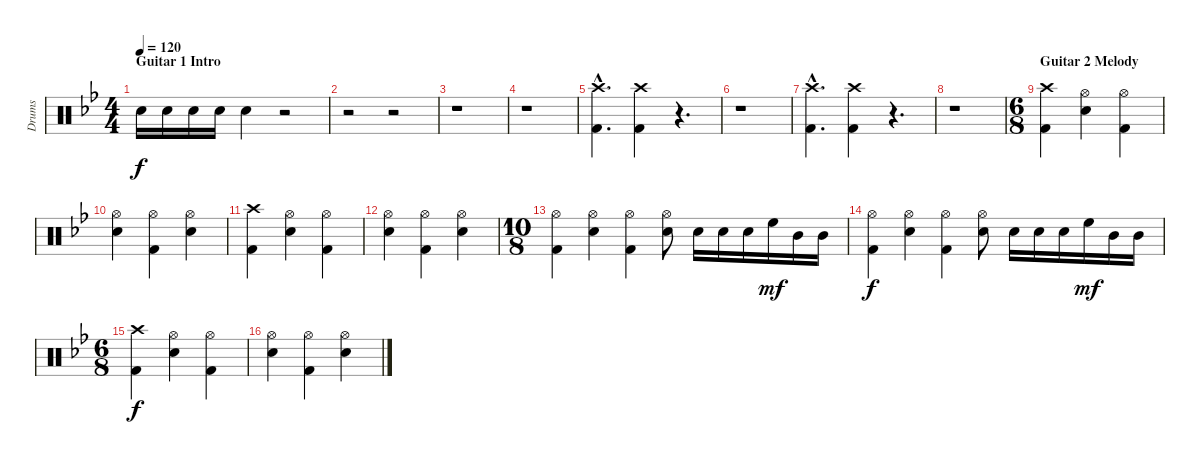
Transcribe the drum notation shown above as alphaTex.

\track ("Drums" "Drums") {instrument percussion}
\staff {score}
\articulation defaults
\ts (4 4)
\section ("" "Guitar 1 Intro")
\tempo 120
\clef neutral
\ks gminor "Snare (hit) 2".16{dy f} "Snare (hit) 2".16 "Snare (hit) 2".16 "Snare (hit) 2".16 "Snare (hit) 2".4
r.2 |
r.2 r.2 |
r.1 |
r.1 |
("Crash high (hit)"{hac} "Kick (hit) 2"{hac}).4{d} ("Crash high (hit)" "Kick (hit) 2").4 r.4{d} |
r.1 |
("Crash high (hit)"{hac} "Kick (hit) 2"{hac}).4{d} ("Crash high (hit)" "Kick (hit) 2").4 r.4{d} |
r.1 |
\ts (6 8)
\section ("" "Guitar 2 Melody")
("Crash high (hit)" "Kick (hit) 2").4 ("Hi-Hat (open)" "Snare (hit) 2").4 ("Hi-Hat (open)" "Kick (hit) 2").4 |
("Hi-Hat (open)" "Snare (hit) 2").4 ("Hi-Hat (open)" "Kick (hit) 2").4 ("Hi-Hat (open)" "Snare (hit) 2").4 |
("Crash high (hit)" "Kick (hit) 2").4 ("Hi-Hat (open)" "Snare (hit) 2").4 ("Hi-Hat (open)" "Kick (hit) 2").4 |
("Hi-Hat (open)" "Snare (hit) 2").4 ("Hi-Hat (open)" "Kick (hit) 2").4 ("Hi-Hat (open)" "Snare (hit) 2").4 |
\ts (10 8)
("Hi-Hat (open)" "Kick (hit) 2").4 ("Hi-Hat (open)" "Snare (hit) 2").4 ("Hi-Hat (open)" "Kick (hit) 2").4 ("Hi-Hat (open)" "Snare (hit) 2").8 "Snare (hit) 2".16 "Snare (hit) 2".16 "Snare (hit) 2".16 "High Floor Tom (hit)".16{dy mf} "Mid Tom (hit)".16 "Mid Tom (hit)".16 |
("Hi-Hat (open)" "Kick (hit) 2").4{dy f} ("Hi-Hat (open)" "Snare (hit) 2").4 ("Hi-Hat (open)" "Kick (hit) 2").4 ("Hi-Hat (open)" "Snare (hit) 2").8 "Snare (hit) 2".16 "Snare (hit) 2".16 "Snare (hit) 2".16 "High Floor Tom (hit)".16{dy mf} "Mid Tom (hit)".16 "Mid Tom (hit)".16 |
\ts (6 8)
("Crash high (hit)" "Kick (hit) 2").4{dy f} ("Hi-Hat (open)" "Snare (hit) 2").4 ("Hi-Hat (open)" "Kick (hit) 2").4 |
("Hi-Hat (open)" "Snare (hit) 2").4 ("Hi-Hat (open)" "Kick (hit) 2").4 ("Hi-Hat (open)" "Snare (hit) 2").4
